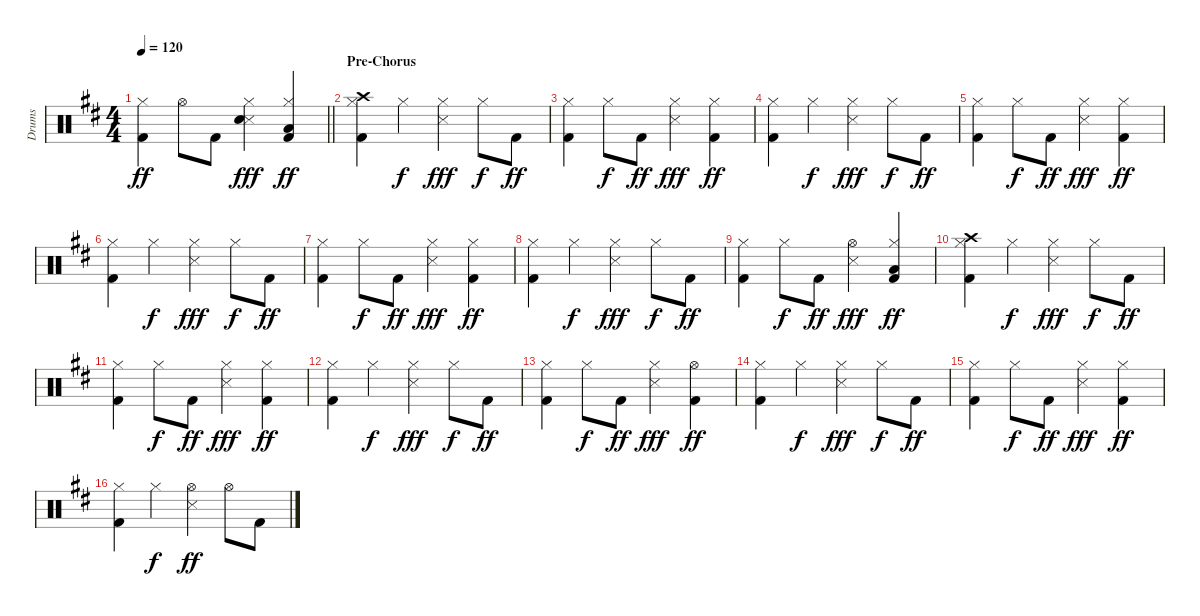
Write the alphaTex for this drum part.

\track ("Drums" "Drums") {instrument percussion}
\staff {score}
\articulation defaults
\ts (4 4)
\tempo 120
\clef neutral
\barLineRight lightlight
\ks d
("Kick (hit) 2" "Hi-Hat (closed)").4{dy ff} "Hi-Hat (open)".8 "Kick (hit) 2".8 ("Snare (side stick) 3" "Snare (hit) 2" "Hi-Hat (closed)").4{dy fff} ("Kick (hit) 2" "Hi-Hat (closed)" "Low Tom (hit)").4{dy ff} |
\section ("" "Pre-Chorus")
("Kick (hit) 2" "Hi-Hat (closed)" "Crash high (hit)").4 "Hi-Hat (closed)".4{dy f} ("Snare (side stick) 3" "Hi-Hat (closed)").4{dy fff} "Hi-Hat (closed)".8{dy f} "Kick (hit) 2".8{dy ff} |
("Kick (hit) 2" "Hi-Hat (closed)").4 "Hi-Hat (closed)".8{dy f} "Kick (hit) 2".8{dy ff} ("Snare (side stick) 3" "Hi-Hat (closed)").4{dy fff} ("Kick (hit) 2" "Hi-Hat (closed)").4{dy ff} |
("Kick (hit) 2" "Hi-Hat (closed)").4 "Hi-Hat (closed)".4{dy f} ("Snare (side stick) 3" "Hi-Hat (closed)").4{dy fff} "Hi-Hat (closed)".8{dy f} "Kick (hit) 2".8{dy ff} |
("Kick (hit) 2" "Hi-Hat (closed)").4 "Hi-Hat (closed)".8{dy f} "Kick (hit) 2".8{dy ff} ("Snare (side stick) 3" "Hi-Hat (closed)").4{dy fff} ("Kick (hit) 2" "Hi-Hat (closed)").4{dy ff} |
("Kick (hit) 2" "Hi-Hat (closed)").4 "Hi-Hat (closed)".4{dy f} ("Snare (side stick) 3" "Hi-Hat (closed)").4{dy fff} "Hi-Hat (closed)".8{dy f} "Kick (hit) 2".8{dy ff} |
("Kick (hit) 2" "Hi-Hat (closed)").4 "Hi-Hat (closed)".8{dy f} "Kick (hit) 2".8{dy ff} ("Snare (side stick) 3" "Hi-Hat (closed)").4{dy fff} ("Kick (hit) 2" "Hi-Hat (closed)").4{dy ff} |
("Kick (hit) 2" "Hi-Hat (closed)").4 "Hi-Hat (closed)".4{dy f} ("Snare (side stick) 3" "Hi-Hat (closed)").4{dy fff} "Hi-Hat (closed)".8{dy f} "Kick (hit) 2".8{dy ff} |
("Kick (hit) 2" "Hi-Hat (closed)").4 "Hi-Hat (closed)".8{dy f} "Kick (hit) 2".8{dy ff} ("Snare (side stick) 3" "Hi-Hat (open)").4{dy fff} ("Kick (hit) 2" "Hi-Hat (closed)" "Low Tom (hit)").4{dy ff} |
("Kick (hit) 2" "Hi-Hat (closed)" "Crash high (hit)").4 "Hi-Hat (closed)".4{dy f} ("Snare (side stick) 3" "Hi-Hat (closed)").4{dy fff} "Hi-Hat (closed)".8{dy f} "Kick (hit) 2".8{dy ff} |
("Kick (hit) 2" "Hi-Hat (closed)").4 "Hi-Hat (closed)".8{dy f} "Kick (hit) 2".8{dy ff} ("Snare (side stick) 3" "Hi-Hat (closed)").4{dy fff} ("Kick (hit) 2" "Hi-Hat (closed)").4{dy ff} |
("Kick (hit) 2" "Hi-Hat (closed)").4 "Hi-Hat (closed)".4{dy f} ("Snare (side stick) 3" "Hi-Hat (closed)").4{dy fff} "Hi-Hat (closed)".8{dy f} "Kick (hit) 2".8{dy ff} |
("Kick (hit) 2" "Hi-Hat (closed)").4 "Hi-Hat (closed)".8{dy f} "Kick (hit) 2".8{dy ff} ("Snare (side stick) 3" "Hi-Hat (closed)").4{dy fff} ("Kick (hit) 2" "Hi-Hat (open)").4{dy ff} |
("Kick (hit) 2" "Hi-Hat (closed)").4 "Hi-Hat (closed)".4{dy f} ("Snare (side stick) 3" "Hi-Hat (closed)").4{dy fff} "Hi-Hat (closed)".8{dy f} "Kick (hit) 2".8{dy ff} |
("Kick (hit) 2" "Hi-Hat (closed)").4 "Hi-Hat (closed)".8{dy f} "Kick (hit) 2".8{dy ff} ("Snare (side stick) 3" "Hi-Hat (closed)").4{dy fff} ("Kick (hit) 2" "Hi-Hat (closed)").4{dy ff} |
("Kick (hit) 2" "Hi-Hat (closed)").4 "Hi-Hat (closed)".4{dy f} ("Snare (side stick) 3" "Hi-Hat (open)").4{dy ff} "Hi-Hat (open)".8 "Kick (hit) 2".8
